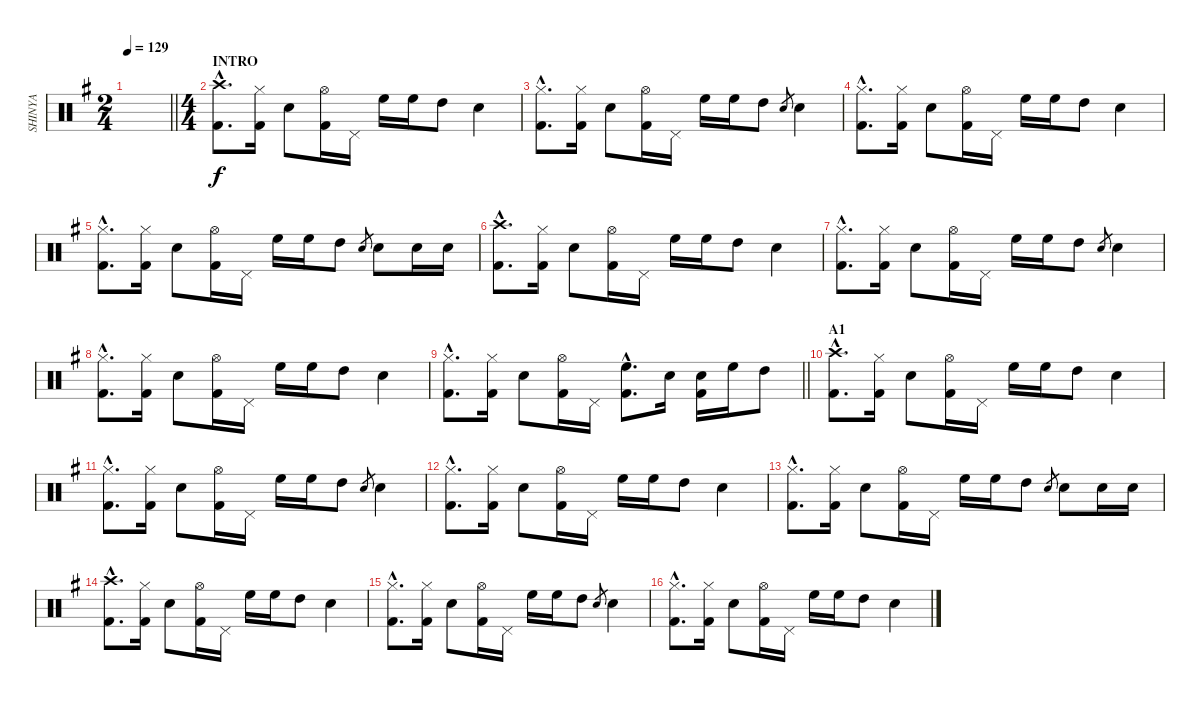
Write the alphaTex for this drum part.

\track ("SHINYA" "SHINYA") {instrument percussion}
\staff {score}
\articulation defaults
\ts (2 4)
\tempo 129
\clef neutral
\barLineRight lightlight
\ks g
|
\ts (4 4)
\section ("" "INTRO")
("Crash high (hit)"{hac} "Kick (hit) 2"{hac}).8{d} ("Hi-Hat (closed)" "Kick (hit) 2").16 "Snare (hit) 2".8 ("Hi-Hat (open)" "Kick (hit) 2").16 "Pedal Hi-Hat (hit)".16 "High Floor Tom (hit)".16 "High Floor Tom (hit)".16 "High Tom (hit)".8 "Snare (hit) 2".4 |
("Hi-Hat (closed)"{hac} "Kick (hit) 2"{hac}).8{d} ("Hi-Hat (closed)" "Kick (hit) 2").16 "Snare (hit) 2".8 ("Hi-Hat (open)" "Kick (hit) 2").16 "Pedal Hi-Hat (hit)".16 "High Floor Tom (hit)".16 "High Floor Tom (hit)".16 "High Tom (hit)".8 "Snare (hit) 2".8{gr} "Snare (hit) 2".4 |
("Hi-Hat (closed)"{hac} "Kick (hit) 2"{hac}).8{d} ("Hi-Hat (closed)" "Kick (hit) 2").16 "Snare (hit) 2".8 ("Hi-Hat (open)" "Kick (hit) 2").16 "Pedal Hi-Hat (hit)".16 "High Floor Tom (hit)".16 "High Floor Tom (hit)".16 "High Tom (hit)".8 "Snare (hit) 2".4 |
("Hi-Hat (closed)"{hac} "Kick (hit) 2"{hac}).8{d} ("Hi-Hat (closed)" "Kick (hit) 2").16 "Snare (hit) 2".8 ("Hi-Hat (open)" "Kick (hit) 2").16 "Pedal Hi-Hat (hit)".16 "High Floor Tom (hit)".16 "High Floor Tom (hit)".16 "High Tom (hit)".8 "Snare (hit) 2".8{gr} "Snare (hit) 2".8 "Snare (hit) 2".16 "Snare (hit) 2".16 |
("Crash high (hit)"{hac} "Kick (hit) 2"{hac}).8{d} ("Hi-Hat (closed)" "Kick (hit) 2").16 "Snare (hit) 2".8 ("Hi-Hat (open)" "Kick (hit) 2").16 "Pedal Hi-Hat (hit)".16 "High Floor Tom (hit)".16 "High Floor Tom (hit)".16 "High Tom (hit)".8 "Snare (hit) 2".4 |
("Hi-Hat (closed)"{hac} "Kick (hit) 2"{hac}).8{d} ("Hi-Hat (closed)" "Kick (hit) 2").16 "Snare (hit) 2".8 ("Hi-Hat (open)" "Kick (hit) 2").16 "Pedal Hi-Hat (hit)".16 "High Floor Tom (hit)".16 "High Floor Tom (hit)".16 "High Tom (hit)".8 "Snare (hit) 2".8{gr} "Snare (hit) 2".4 |
("Hi-Hat (closed)"{hac} "Kick (hit) 2"{hac}).8{d} ("Hi-Hat (closed)" "Kick (hit) 2").16 "Snare (hit) 2".8 ("Hi-Hat (open)" "Kick (hit) 2").16 "Pedal Hi-Hat (hit)".16 "High Floor Tom (hit)".16 "High Floor Tom (hit)".16 "High Tom (hit)".8 "Snare (hit) 2".4 |
\barLineRight lightlight
("Hi-Hat (closed)"{hac} "Kick (hit) 2"{hac}).8{d} ("Hi-Hat (closed)" "Kick (hit) 2").16 "Snare (hit) 2".8 ("Hi-Hat (open)" "Kick (hit) 2").16 "Pedal Hi-Hat (hit)".16 ("High Floor Tom (hit)"{hac} "Kick (hit) 2"{hac}).8{d} "Snare (hit) 2".16 ("Snare (hit) 2" "Kick (hit) 2").16 "High Floor Tom (hit)".16 "High Tom (hit)".8 |
\section ("" "A1")
("Crash high (hit)"{hac} "Kick (hit) 2"{hac}).8{d} ("Hi-Hat (closed)" "Kick (hit) 2").16 "Snare (hit) 2".8 ("Hi-Hat (open)" "Kick (hit) 2").16 "Pedal Hi-Hat (hit)".16 "High Floor Tom (hit)".16 "High Floor Tom (hit)".16 "High Tom (hit)".8 "Snare (hit) 2".4 |
("Hi-Hat (closed)"{hac} "Kick (hit) 2"{hac}).8{d} ("Hi-Hat (closed)" "Kick (hit) 2").16 "Snare (hit) 2".8 ("Hi-Hat (open)" "Kick (hit) 2").16 "Pedal Hi-Hat (hit)".16 "High Floor Tom (hit)".16 "High Floor Tom (hit)".16 "High Tom (hit)".8 "Snare (hit) 2".8{gr} "Snare (hit) 2".4 |
("Hi-Hat (closed)"{hac} "Kick (hit) 2"{hac}).8{d} ("Hi-Hat (closed)" "Kick (hit) 2").16 "Snare (hit) 2".8 ("Hi-Hat (open)" "Kick (hit) 2").16 "Pedal Hi-Hat (hit)".16 "High Floor Tom (hit)".16 "High Floor Tom (hit)".16 "High Tom (hit)".8 "Snare (hit) 2".4 |
("Hi-Hat (closed)"{hac} "Kick (hit) 2"{hac}).8{d} ("Hi-Hat (closed)" "Kick (hit) 2").16 "Snare (hit) 2".8 ("Hi-Hat (open)" "Kick (hit) 2").16 "Pedal Hi-Hat (hit)".16 "High Floor Tom (hit)".16 "High Floor Tom (hit)".16 "High Tom (hit)".8 "Snare (hit) 2".8{gr} "Snare (hit) 2".8 "Snare (hit) 2".16 "Snare (hit) 2".16 |
("Crash high (hit)"{hac} "Kick (hit) 2"{hac}).8{d} ("Hi-Hat (closed)" "Kick (hit) 2").16 "Snare (hit) 2".8 ("Hi-Hat (open)" "Kick (hit) 2").16 "Pedal Hi-Hat (hit)".16 "High Floor Tom (hit)".16 "High Floor Tom (hit)".16 "High Tom (hit)".8 "Snare (hit) 2".4 |
("Hi-Hat (closed)"{hac} "Kick (hit) 2"{hac}).8{d} ("Hi-Hat (closed)" "Kick (hit) 2").16 "Snare (hit) 2".8 ("Hi-Hat (open)" "Kick (hit) 2").16 "Pedal Hi-Hat (hit)".16 "High Floor Tom (hit)".16 "High Floor Tom (hit)".16 "High Tom (hit)".8 "Snare (hit) 2".8{gr} "Snare (hit) 2".4 |
("Hi-Hat (closed)"{hac} "Kick (hit) 2"{hac}).8{d} ("Hi-Hat (closed)" "Kick (hit) 2").16 "Snare (hit) 2".8 ("Hi-Hat (open)" "Kick (hit) 2").16 "Pedal Hi-Hat (hit)".16 "High Floor Tom (hit)".16 "High Floor Tom (hit)".16 "High Tom (hit)".8 "Snare (hit) 2".4
